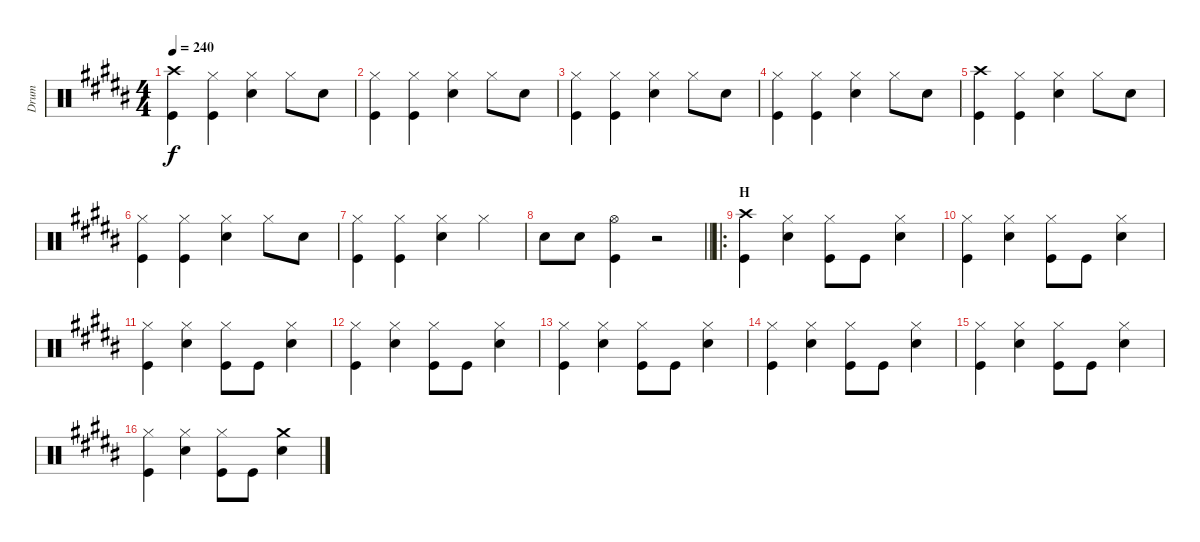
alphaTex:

\track ("Drum" "Drum") {instrument percussion}
\staff {score}
\articulation defaults
\ts (4 4)
\tempo 240
\clef neutral
\ks b
("Kick (hit)" "Crash high (hit)").4{dy f} ("Hi-Hat (closed)" "Kick (hit)").4 ("Snare (hit) 2" "Hi-Hat (closed)").4 "Hi-Hat (closed)".8 "Snare (hit) 2".8 |
("Kick (hit)" "Hi-Hat (closed)").4 ("Hi-Hat (closed)" "Kick (hit)").4 ("Snare (hit) 2" "Hi-Hat (closed)").4 "Hi-Hat (closed)".8 "Snare (hit) 2".8 |
("Kick (hit)" "Hi-Hat (closed)").4 ("Hi-Hat (closed)" "Kick (hit)").4 ("Snare (hit) 2" "Hi-Hat (closed)").4 "Hi-Hat (closed)".8 "Snare (hit) 2".8 |
("Kick (hit)" "Hi-Hat (closed)").4 ("Hi-Hat (closed)" "Kick (hit)").4 ("Snare (hit) 2" "Hi-Hat (closed)").4 "Hi-Hat (closed)".8 "Snare (hit) 2".8 |
("Kick (hit)" "Crash high (hit)").4 ("Hi-Hat (closed)" "Kick (hit)").4 ("Snare (hit) 2" "Hi-Hat (closed)").4 "Hi-Hat (closed)".8 "Snare (hit) 2".8 |
("Kick (hit)" "Hi-Hat (closed)").4 ("Hi-Hat (closed)" "Kick (hit)").4 ("Snare (hit) 2" "Hi-Hat (closed)").4 "Hi-Hat (closed)".8 "Snare (hit) 2".8 |
("Kick (hit)" "Hi-Hat (closed)").4 ("Hi-Hat (closed)" "Kick (hit)").4 ("Snare (hit) 2" "Hi-Hat (closed)").4 "Hi-Hat (closed)".4 |
\barLineRight lightlight "Snare (hit) 2".8 "Snare (hit) 2".8
("Kick (hit)" "Hi-Hat (open)").4 r.2 |
\ro
\section ("" "H")
("Kick (hit)" "Crash high (hit)").4 ("Hi-Hat (closed)" "Snare (hit) 2").4 ("Hi-Hat (closed)" "Kick (hit)").8 "Kick (hit)".8 ("Snare (hit) 2" "Hi-Hat (closed)").4 |
("Kick (hit)" "Hi-Hat (closed)").4 ("Hi-Hat (closed)" "Snare (hit) 2").4 ("Hi-Hat (closed)" "Kick (hit)").8 "Kick (hit)".8 ("Snare (hit) 2" "Hi-Hat (closed)").4 |
("Kick (hit)" "Hi-Hat (closed)").4 ("Hi-Hat (closed)" "Snare (hit) 2").4 ("Hi-Hat (closed)" "Kick (hit)").8 "Kick (hit)".8 ("Snare (hit) 2" "Hi-Hat (closed)").4 |
("Kick (hit)" "Hi-Hat (closed)").4 ("Hi-Hat (closed)" "Snare (hit) 2").4 ("Hi-Hat (closed)" "Kick (hit)").8 "Kick (hit)".8 ("Snare (hit) 2" "Hi-Hat (closed)").4 |
("Kick (hit)" "Hi-Hat (closed)").4 ("Hi-Hat (closed)" "Snare (hit) 2").4 ("Hi-Hat (closed)" "Kick (hit)").8 "Kick (hit)".8 ("Snare (hit) 2" "Hi-Hat (closed)").4 |
("Kick (hit)" "Hi-Hat (closed)").4 ("Hi-Hat (closed)" "Snare (hit) 2").4 ("Hi-Hat (closed)" "Kick (hit)").8 "Kick (hit)".8 ("Snare (hit) 2" "Hi-Hat (closed)").4 |
("Kick (hit)" "Hi-Hat (closed)").4 ("Hi-Hat (closed)" "Snare (hit) 2").4 ("Hi-Hat (closed)" "Kick (hit)").8 "Kick (hit)".8 ("Snare (hit) 2" "Hi-Hat (closed)").4 |
("Kick (hit)" "Hi-Hat (closed)").4 ("Hi-Hat (closed)" "Snare (hit) 2").4 ("Hi-Hat (closed)" "Kick (hit)").8 "Kick (hit)".8 ("Snare (hit) 2" "Crash medium (hit)").4
